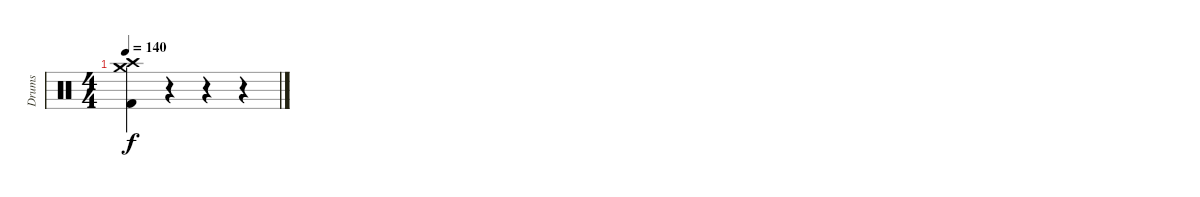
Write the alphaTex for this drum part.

\track ("Drums" "Drums") {instrument percussion}
\staff {score}
\articulation defaults
\ts (4 4)
\tempo 140
\clef neutral
\ks c
("Crash high (hit)" "Crash medium (hit)" "Kick (hit) 2").4{dy f} r.4 r.4 r.4
